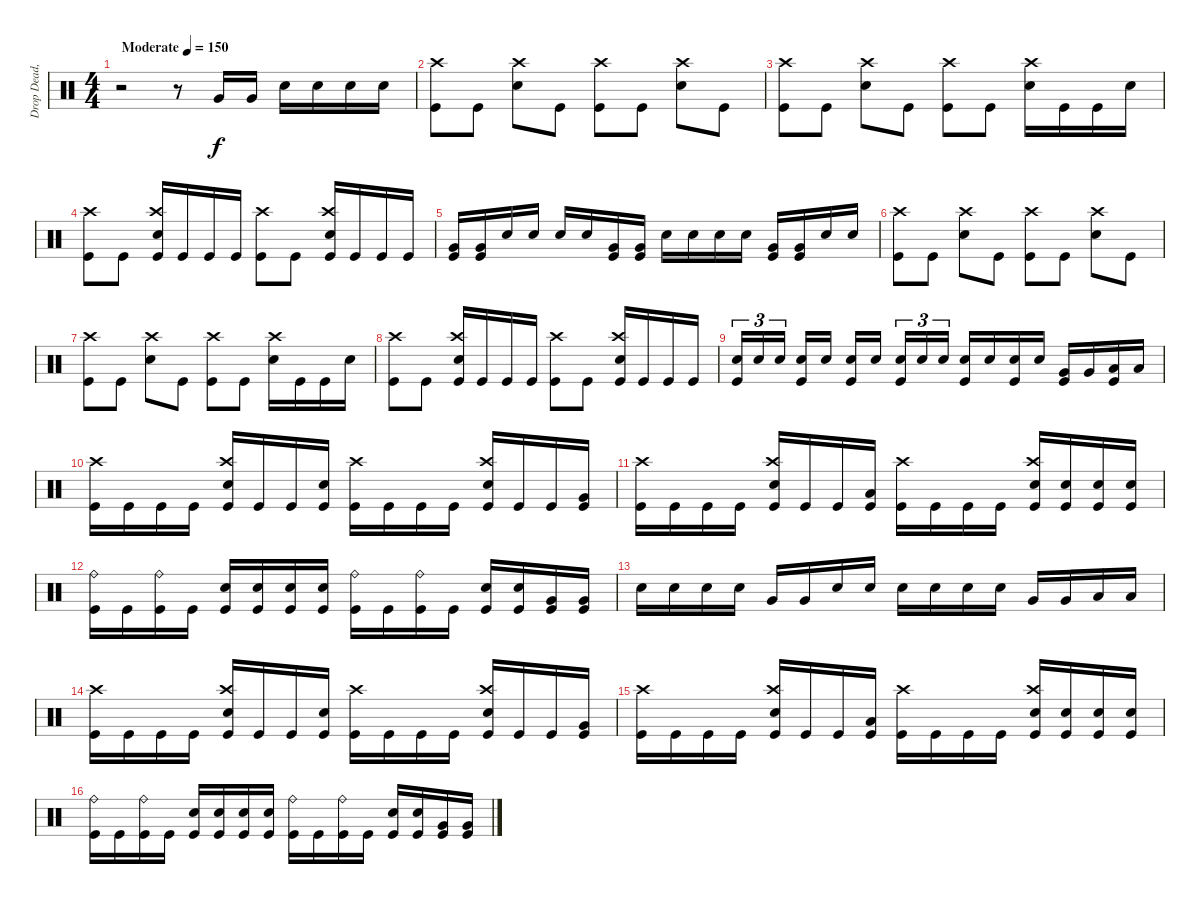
\track ("Drop Dead, Johnny" "Drop Dead,") {instrument percussion}
\staff {score}
\articulation defaults
\ts (4 4)
\tempo (150 "Moderate")
\clef neutral
\ks c
r.2{dy f} r.8 "Very Low Tom (hit)".16 "Very Low Tom (hit)".16 "Electric Snare (hit)".16 "Electric Snare (hit)".16 "Electric Snare (hit)".16 "Electric Snare (hit)".16 |
("Crash high (hit)" "Kick (hit)").8 "Kick (hit)".8 ("Crash high (hit)" "Electric Snare (hit)").8 "Kick (hit)".8 ("Crash high (hit)" "Kick (hit)").8 "Kick (hit)".8 ("Crash high (hit)" "Electric Snare (hit)").8 "Kick (hit)".8 |
("Crash high (hit)" "Kick (hit)").8 "Kick (hit)".8 ("Crash high (hit)" "Electric Snare (hit)").8 "Kick (hit)".8 ("Crash high (hit)" "Kick (hit)").8 "Kick (hit)".8 ("Crash high (hit)" "Electric Snare (hit)").16 "Kick (hit)".16 "Kick (hit)".16 "Electric Snare (hit)".16 |
("Crash high (hit)" "Kick (hit)").8 "Kick (hit)".8 ("Crash high (hit)" "Electric Snare (hit)" "Kick (hit)").16 "Kick (hit)".16 "Kick (hit)".16 "Kick (hit)".16 ("Crash high (hit)" "Kick (hit)").8 "Kick (hit)".8 ("Crash high (hit)" "Electric Snare (hit)" "Kick (hit)").16 "Kick (hit)".16 "Kick (hit)".16 "Kick (hit)".16 |
("Very Low Tom (hit)" "Kick (hit)").16 ("Very Low Tom (hit)" "Kick (hit)").16 "Electric Snare (hit)".16 "Electric Snare (hit)".16 "Electric Snare (hit)".16 "Electric Snare (hit)".16 ("Very Low Tom (hit)" "Kick (hit)").16 ("Very Low Tom (hit)" "Kick (hit)").16 "Electric Snare (hit)".16 "Electric Snare (hit)".16 "Electric Snare (hit)".16 "Electric Snare (hit)".16 ("Very Low Tom (hit)" "Kick (hit)").16 ("Very Low Tom (hit)" "Kick (hit)").16 "Electric Snare (hit)".16 "Electric Snare (hit)".16 |
("Crash high (hit)" "Kick (hit)").8 "Kick (hit)".8 ("Crash high (hit)" "Electric Snare (hit)").8 "Kick (hit)".8 ("Crash high (hit)" "Kick (hit)").8 "Kick (hit)".8 ("Crash high (hit)" "Electric Snare (hit)").8 "Kick (hit)".8 |
("Crash high (hit)" "Kick (hit)").8 "Kick (hit)".8 ("Crash high (hit)" "Electric Snare (hit)").8 "Kick (hit)".8 ("Crash high (hit)" "Kick (hit)").8 "Kick (hit)".8 ("Crash high (hit)" "Electric Snare (hit)").16 "Kick (hit)".16 "Kick (hit)".16 "Electric Snare (hit)".16 |
("Crash high (hit)" "Kick (hit)").8 "Kick (hit)".8 ("Crash high (hit)" "Electric Snare (hit)" "Kick (hit)").16 "Kick (hit)".16 "Kick (hit)".16 "Kick (hit)".16 ("Crash high (hit)" "Kick (hit)").8 "Kick (hit)".8 ("Crash high (hit)" "Electric Snare (hit)" "Kick (hit)").16 "Kick (hit)".16 "Kick (hit)".16 "Kick (hit)".16 |
("Electric Snare (hit)" "Kick (hit)").16{tu (3 2)} "Electric Snare (hit)".16{tu (3 2)} "Electric Snare (hit)".16{tu (3 2) beam splitsecondary} ("Electric Snare (hit)" "Kick (hit)").16 "Electric Snare (hit)".16 ("Electric Snare (hit)" "Kick (hit)").16 "Electric Snare (hit)".16{beam splitsecondary} ("Electric Snare (hit)" "Kick (hit)").16{tu (3 2)} "Electric Snare (hit)".16{tu (3 2)} "Electric Snare (hit)".16{tu (3 2)} ("Electric Snare (hit)" "Kick (hit)").16 "Electric Snare (hit)".16 ("Electric Snare (hit)" "Kick (hit)").16 "Electric Snare (hit)".16 ("Very Low Tom (hit)" "Kick (hit)").16 "Very Low Tom (hit)".16 ("Low Floor Tom (hit)" "Kick (hit)").16 "Low Floor Tom (hit)".16 |
("Crash high (hit)" "Kick (hit)").16 "Kick (hit)".16 "Kick (hit)".16 "Kick (hit)".16 ("Crash high (hit)" "Electric Snare (hit)" "Kick (hit)").16 "Kick (hit)".16 "Kick (hit)".16 ("Electric Snare (hit)" "Kick (hit)").16 ("Crash high (hit)" "Kick (hit)").16 "Kick (hit)".16 "Kick (hit)".16 "Kick (hit)".16 ("Crash high (hit)" "Electric Snare (hit)" "Kick (hit)").16 "Kick (hit)".16 "Kick (hit)".16 ("Very Low Tom (hit)" "Kick (hit)").16 |
("Crash high (hit)" "Kick (hit)").16 "Kick (hit)".16 "Kick (hit)".16 "Kick (hit)".16 ("Crash high (hit)" "Electric Snare (hit)" "Kick (hit)").16 "Kick (hit)".16 "Kick (hit)".16 ("Low Floor Tom (hit)" "Kick (hit)").16 ("Crash high (hit)" "Kick (hit)").16 "Kick (hit)".16 "Kick (hit)".16 "Kick (hit)".16 ("Crash high (hit)" "Electric Snare (hit)" "Kick (hit)").16 ("Electric Snare (hit)" "Kick (hit)").16 ("Electric Snare (hit)" "Kick (hit)").16 ("Electric Snare (hit)" "Kick (hit)").16 |
("Ride (bell)" "Kick (hit)").16 "Kick (hit)".16 ("Ride (bell)" "Kick (hit)").16 "Kick (hit)".16 ("Electric Snare (hit)" "Kick (hit)").16 ("Electric Snare (hit)" "Kick (hit)").16 ("Electric Snare (hit)" "Kick (hit)").16 ("Electric Snare (hit)" "Kick (hit)").16 ("Ride (bell)" "Kick (hit)").16 "Kick (hit)".16 ("Ride (bell)" "Kick (hit)").16 "Kick (hit)".16 ("Electric Snare (hit)" "Kick (hit)").16 ("Electric Snare (hit)" "Kick (hit)").16 ("Very Low Tom (hit)" "Kick (hit)").16 ("Very Low Tom (hit)" "Kick (hit)").16 |
"Electric Snare (hit)".16 "Electric Snare (hit)".16 "Electric Snare (hit)".16 "Electric Snare (hit)".16 "Very Low Tom (hit)".16 "Very Low Tom (hit)".16 "Electric Snare (hit)".16 "Electric Snare (hit)".16 "Electric Snare (hit)".16 "Electric Snare (hit)".16 "Electric Snare (hit)".16 "Electric Snare (hit)".16 "Very Low Tom (hit)".16 "Very Low Tom (hit)".16 "Low Floor Tom (hit)".16 "Low Floor Tom (hit)".16 |
("Crash high (hit)" "Kick (hit)").16 "Kick (hit)".16 "Kick (hit)".16 "Kick (hit)".16 ("Crash high (hit)" "Electric Snare (hit)" "Kick (hit)").16 "Kick (hit)".16 "Kick (hit)".16 ("Electric Snare (hit)" "Kick (hit)").16 ("Crash high (hit)" "Kick (hit)").16 "Kick (hit)".16 "Kick (hit)".16 "Kick (hit)".16 ("Crash high (hit)" "Electric Snare (hit)" "Kick (hit)").16 "Kick (hit)".16 "Kick (hit)".16 ("Very Low Tom (hit)" "Kick (hit)").16 |
("Crash high (hit)" "Kick (hit)").16 "Kick (hit)".16 "Kick (hit)".16 "Kick (hit)".16 ("Crash high (hit)" "Electric Snare (hit)" "Kick (hit)").16 "Kick (hit)".16 "Kick (hit)".16 ("Low Floor Tom (hit)" "Kick (hit)").16 ("Crash high (hit)" "Kick (hit)").16 "Kick (hit)".16 "Kick (hit)".16 "Kick (hit)".16 ("Crash high (hit)" "Electric Snare (hit)" "Kick (hit)").16 ("Electric Snare (hit)" "Kick (hit)").16 ("Electric Snare (hit)" "Kick (hit)").16 ("Electric Snare (hit)" "Kick (hit)").16 |
("Ride (bell)" "Kick (hit)").16 "Kick (hit)".16 ("Ride (bell)" "Kick (hit)").16 "Kick (hit)".16 ("Electric Snare (hit)" "Kick (hit)").16 ("Electric Snare (hit)" "Kick (hit)").16 ("Electric Snare (hit)" "Kick (hit)").16 ("Electric Snare (hit)" "Kick (hit)").16 ("Ride (bell)" "Kick (hit)").16 "Kick (hit)".16 ("Ride (bell)" "Kick (hit)").16 "Kick (hit)".16 ("Electric Snare (hit)" "Kick (hit)").16 ("Electric Snare (hit)" "Kick (hit)").16 ("Very Low Tom (hit)" "Kick (hit)").16 ("Very Low Tom (hit)" "Kick (hit)").16
